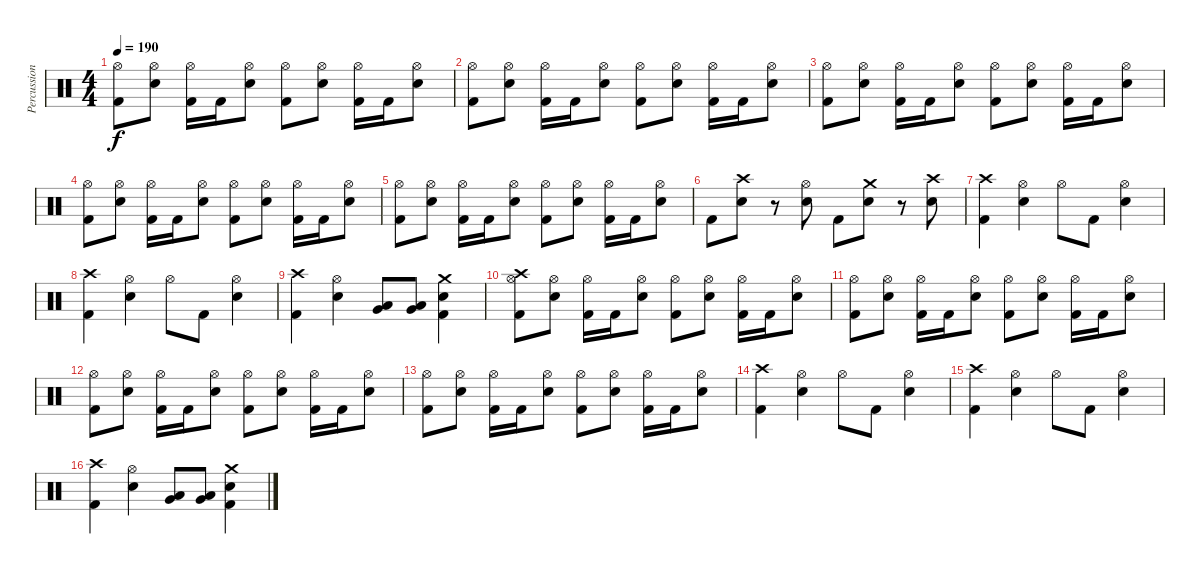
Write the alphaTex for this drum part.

\track ("Percussion" "Percussion") {instrument percussion}
\staff {score}
\articulation defaults
\ts (4 4)
\tempo 190
\clef neutral
\ks c
("Hi-Hat (open)" "Kick (hit) 2").8{dy f} ("Hi-Hat (open)" "Snare (hit) 2").8 ("Hi-Hat (open)" "Kick (hit) 2").16 "Kick (hit) 2".16 ("Hi-Hat (open)" "Snare (hit) 2").8 ("Hi-Hat (open)" "Kick (hit) 2").8 ("Hi-Hat (open)" "Snare (hit) 2").8 ("Hi-Hat (open)" "Kick (hit) 2").16 "Kick (hit) 2".16 ("Hi-Hat (open)" "Snare (hit) 2").8 |
("Hi-Hat (open)" "Kick (hit) 2").8 ("Hi-Hat (open)" "Snare (hit) 2").8 ("Hi-Hat (open)" "Kick (hit) 2").16 "Kick (hit) 2".16 ("Hi-Hat (open)" "Snare (hit) 2").8 ("Hi-Hat (open)" "Kick (hit) 2").8 ("Hi-Hat (open)" "Snare (hit) 2").8 ("Hi-Hat (open)" "Kick (hit) 2").16 "Kick (hit) 2".16 ("Hi-Hat (open)" "Snare (hit) 2").8 |
("Hi-Hat (open)" "Kick (hit) 2").8 ("Hi-Hat (open)" "Snare (hit) 2").8 ("Hi-Hat (open)" "Kick (hit) 2").16 "Kick (hit) 2".16 ("Hi-Hat (open)" "Snare (hit) 2").8 ("Hi-Hat (open)" "Kick (hit) 2").8 ("Hi-Hat (open)" "Snare (hit) 2").8 ("Hi-Hat (open)" "Kick (hit) 2").16 "Kick (hit) 2".16 ("Hi-Hat (open)" "Snare (hit) 2").8 |
("Hi-Hat (open)" "Kick (hit) 2").8 ("Hi-Hat (open)" "Snare (hit) 2").8 ("Hi-Hat (open)" "Kick (hit) 2").16 "Kick (hit) 2".16 ("Hi-Hat (open)" "Snare (hit) 2").8 ("Hi-Hat (open)" "Kick (hit) 2").8 ("Hi-Hat (open)" "Snare (hit) 2").8 ("Hi-Hat (open)" "Kick (hit) 2").16 "Kick (hit) 2".16 ("Hi-Hat (open)" "Snare (hit) 2").8 |
("Hi-Hat (open)" "Kick (hit) 2").8 ("Hi-Hat (open)" "Snare (hit) 2").8 ("Hi-Hat (open)" "Kick (hit) 2").16 "Kick (hit) 2".16 ("Hi-Hat (open)" "Snare (hit) 2").8 ("Hi-Hat (open)" "Kick (hit) 2").8 ("Hi-Hat (open)" "Snare (hit) 2").8 ("Hi-Hat (open)" "Kick (hit) 2").16 "Kick (hit) 2".16 ("Hi-Hat (open)" "Snare (hit) 2").8 |
"Kick (hit) 2".8 ("Crash high (hit)" "Snare (hit) 2").8 r.8 ("Hi-Hat (open)" "Snare (hit) 2").8 "Kick (hit) 2".8 ("Crash medium (hit)" "Snare (hit) 2").8 r.8 ("Crash high (hit)" "Snare (hit) 2").8 |
("Crash high (hit)" "Kick (hit) 2").4 ("Hi-Hat (open)" "Snare (hit) 2").4 "Hi-Hat (open)".8 "Kick (hit) 2".8 ("Hi-Hat (open)" "Snare (hit) 2").4 |
("Crash high (hit)" "Kick (hit) 2").4 ("Hi-Hat (open)" "Snare (hit) 2").4 "Hi-Hat (open)".8 "Kick (hit) 2".8 ("Hi-Hat (open)" "Snare (hit) 2").4 |
("Crash high (hit)" "Kick (hit) 2").4 ("Hi-Hat (open)" "Snare (hit) 2").4 ("Low Tom (hit)" "Very Low Tom (hit)").8 ("Low Tom (hit)" "Very Low Tom (hit)").8 ("Crash medium (hit)" "Snare (hit) 2" "Kick (hit) 2").4 |
("Crash high (hit)" "Hi-Hat (open)" "Kick (hit) 2").8 ("Hi-Hat (open)" "Snare (hit) 2").8 ("Hi-Hat (open)" "Kick (hit) 2").16 "Kick (hit) 2".16 ("Hi-Hat (open)" "Snare (hit) 2").8 ("Hi-Hat (open)" "Kick (hit) 2").8 ("Hi-Hat (open)" "Snare (hit) 2").8 ("Hi-Hat (open)" "Kick (hit) 2").16 "Kick (hit) 2".16 ("Hi-Hat (open)" "Snare (hit) 2").8 |
("Hi-Hat (open)" "Kick (hit) 2").8 ("Hi-Hat (open)" "Snare (hit) 2").8 ("Hi-Hat (open)" "Kick (hit) 2").16 "Kick (hit) 2".16 ("Hi-Hat (open)" "Snare (hit) 2").8 ("Hi-Hat (open)" "Kick (hit) 2").8 ("Hi-Hat (open)" "Snare (hit) 2").8 ("Hi-Hat (open)" "Kick (hit) 2").16 "Kick (hit) 2".16 ("Hi-Hat (open)" "Snare (hit) 2").8 |
("Hi-Hat (open)" "Kick (hit) 2").8 ("Hi-Hat (open)" "Snare (hit) 2").8 ("Hi-Hat (open)" "Kick (hit) 2").16 "Kick (hit) 2".16 ("Hi-Hat (open)" "Snare (hit) 2").8 ("Hi-Hat (open)" "Kick (hit) 2").8 ("Hi-Hat (open)" "Snare (hit) 2").8 ("Hi-Hat (open)" "Kick (hit) 2").16 "Kick (hit) 2".16 ("Hi-Hat (open)" "Snare (hit) 2").8 |
("Hi-Hat (open)" "Kick (hit) 2").8 ("Hi-Hat (open)" "Snare (hit) 2").8 ("Hi-Hat (open)" "Kick (hit) 2").16 "Kick (hit) 2".16 ("Hi-Hat (open)" "Snare (hit) 2").8 ("Hi-Hat (open)" "Kick (hit) 2").8 ("Hi-Hat (open)" "Snare (hit) 2").8 ("Hi-Hat (open)" "Kick (hit) 2").16 "Kick (hit) 2".16 ("Hi-Hat (open)" "Snare (hit) 2").8 |
("Crash high (hit)" "Kick (hit) 2").4 ("Hi-Hat (open)" "Snare (hit) 2").4 "Hi-Hat (open)".8 "Kick (hit) 2".8 ("Hi-Hat (open)" "Snare (hit) 2").4 |
("Crash high (hit)" "Kick (hit) 2").4 ("Hi-Hat (open)" "Snare (hit) 2").4 "Hi-Hat (open)".8 "Kick (hit) 2".8 ("Hi-Hat (open)" "Snare (hit) 2").4 |
("Crash high (hit)" "Kick (hit) 2").4 ("Hi-Hat (open)" "Snare (hit) 2").4 ("Low Tom (hit)" "Very Low Tom (hit)").8 ("Low Tom (hit)" "Very Low Tom (hit)").8 ("Crash medium (hit)" "Snare (hit) 2" "Kick (hit) 2").4
